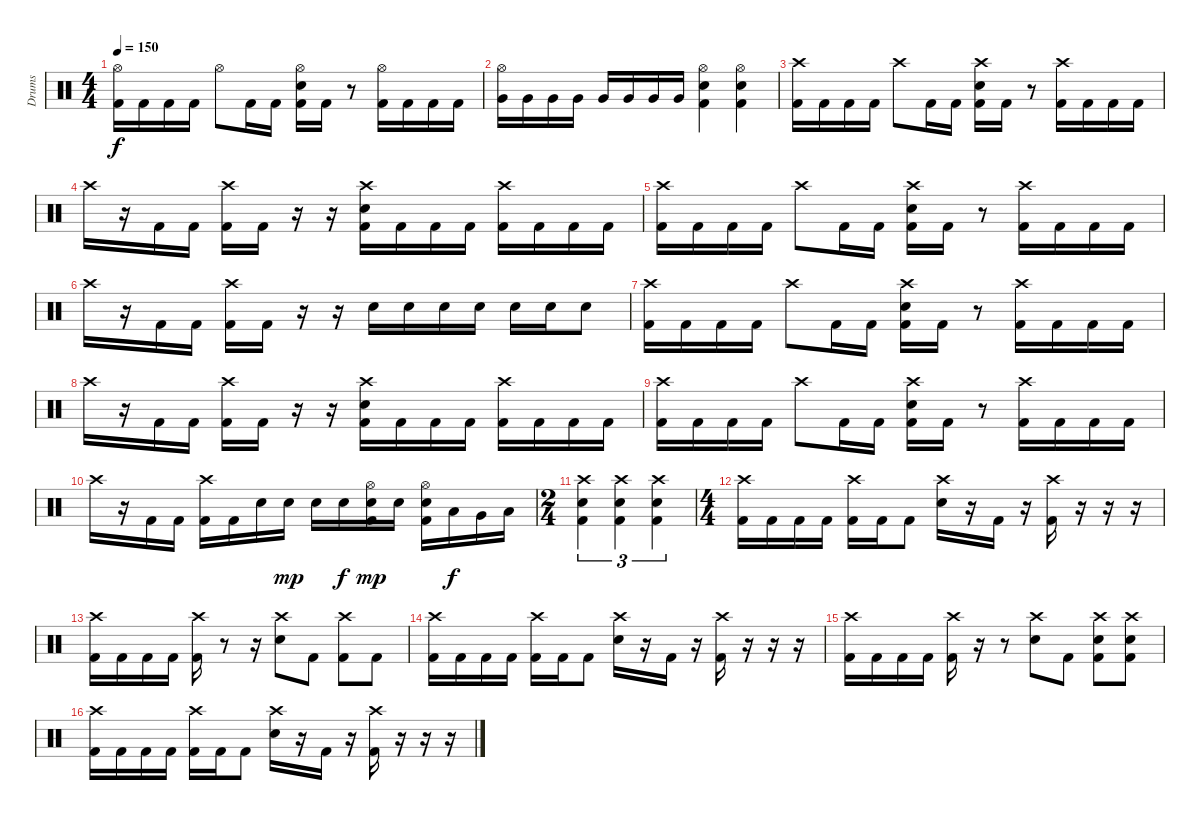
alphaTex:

\track ("Drums" "Drums") {instrument percussion}
\staff {score}
\articulation defaults
\ts (4 4)
\tempo 150
\clef neutral
\ks c
("Hi-Hat (open)" "Kick (hit) 2").16{dy f} "Kick (hit) 2".16 "Kick (hit) 2".16 "Kick (hit) 2".16 "Hi-Hat (open)".8 "Kick (hit) 2".16 "Kick (hit) 2".16 ("Hi-Hat (open)" "Electric Snare (hit)" "Kick (hit) 2").16 "Kick (hit) 2".16 r.8 ("Hi-Hat (open)" "Kick (hit) 2").16 "Kick (hit) 2".16 "Kick (hit) 2".16 "Kick (hit) 2".16 |
("Hi-Hat (open)" "Very Low Tom (hit)").16 "Very Low Tom (hit)".16 "Very Low Tom (hit)".16 "Very Low Tom (hit)".16 "Very Low Tom (hit)".16 "Very Low Tom (hit)".16 "Very Low Tom (hit)".16 "Very Low Tom (hit)".16 ("Hi-Hat (open)" "Electric Snare (hit)" "Kick (hit) 2").4 ("Hi-Hat (open)" "Electric Snare (hit)" "Kick (hit) 2").4 |
("Crash high (hit)" "Kick (hit) 2").16 "Kick (hit) 2".16 "Kick (hit) 2".16 "Kick (hit) 2".16 "Crash high (hit)".8 "Kick (hit) 2".16 "Kick (hit) 2".16 ("Crash high (hit)" "Electric Snare (hit)" "Kick (hit) 2").16 "Kick (hit) 2".16 r.8 ("Crash high (hit)" "Kick (hit) 2").16 "Kick (hit) 2".16 "Kick (hit) 2".16 "Kick (hit) 2".16 |
"Crash high (hit)".16 r.16 "Kick (hit) 2".16 "Kick (hit) 2".16 ("Crash high (hit)" "Kick (hit) 2").16 "Kick (hit) 2".16 r.16 r.16 ("Crash high (hit)" "Electric Snare (hit)" "Kick (hit) 2").16 "Kick (hit) 2".16 "Kick (hit) 2".16 "Kick (hit) 2".16 ("Crash high (hit)" "Kick (hit) 2").16 "Kick (hit) 2".16 "Kick (hit) 2".16 "Kick (hit) 2".16 |
("Crash high (hit)" "Kick (hit) 2").16 "Kick (hit) 2".16 "Kick (hit) 2".16 "Kick (hit) 2".16 "Crash high (hit)".8 "Kick (hit) 2".16 "Kick (hit) 2".16 ("Crash high (hit)" "Electric Snare (hit)" "Kick (hit) 2").16 "Kick (hit) 2".16 r.8 ("Crash high (hit)" "Kick (hit) 2").16 "Kick (hit) 2".16 "Kick (hit) 2".16 "Kick (hit) 2".16 |
"Crash high (hit)".16 r.16 "Kick (hit) 2".16 "Kick (hit) 2".16 ("Crash high (hit)" "Kick (hit) 2").16 "Kick (hit) 2".16 r.16 r.16 "Electric Snare (hit)".16 "Electric Snare (hit)".16 "Electric Snare (hit)".16 "Electric Snare (hit)".16 "Electric Snare (hit)".16 "Electric Snare (hit)".16 "Electric Snare (hit)".8 |
("Crash high (hit)" "Kick (hit) 2").16 "Kick (hit) 2".16 "Kick (hit) 2".16 "Kick (hit) 2".16 "Crash high (hit)".8 "Kick (hit) 2".16 "Kick (hit) 2".16 ("Crash high (hit)" "Electric Snare (hit)" "Kick (hit) 2").16 "Kick (hit) 2".16 r.8 ("Crash high (hit)" "Kick (hit) 2").16 "Kick (hit) 2".16 "Kick (hit) 2".16 "Kick (hit) 2".16 |
"Crash high (hit)".16 r.16 "Kick (hit) 2".16 "Kick (hit) 2".16 ("Crash high (hit)" "Kick (hit) 2").16 "Kick (hit) 2".16 r.16 r.16 ("Crash high (hit)" "Electric Snare (hit)" "Kick (hit) 2").16 "Kick (hit) 2".16 "Kick (hit) 2".16 "Kick (hit) 2".16 ("Crash high (hit)" "Kick (hit) 2").16 "Kick (hit) 2".16 "Kick (hit) 2".16 "Kick (hit) 2".16 |
("Crash high (hit)" "Kick (hit) 2").16 "Kick (hit) 2".16 "Kick (hit) 2".16 "Kick (hit) 2".16 "Crash high (hit)".8 "Kick (hit) 2".16 "Kick (hit) 2".16 ("Crash high (hit)" "Electric Snare (hit)" "Kick (hit) 2").16 "Kick (hit) 2".16 r.8 ("Crash high (hit)" "Kick (hit) 2").16 "Kick (hit) 2".16 "Kick (hit) 2".16 "Kick (hit) 2".16 |
"Crash high (hit)".16 r.16 "Kick (hit) 2".16 "Kick (hit) 2".16 ("Crash high (hit)" "Kick (hit) 2").16 "Kick (hit) 2".16 "Electric Snare (hit)".16 "Electric Snare (hit)".16{dy mp} "Electric Snare (hit)".16 "Electric Snare (hit)".16{dy f} ("Hi-Hat (open)" "Electric Snare (hit)" "Kick (hit) 2").16{dy mp} "Electric Snare (hit)".16 ("Hi-Hat (open)" "Electric Snare (hit)" "Kick (hit) 2").16 "Low Tom (hit)".16{dy f} "Very Low Tom (hit)".16 "Low Floor Tom (hit)".16 |
\ts (2 4)
("Crash high (hit)" "Electric Snare (hit)" "Kick (hit) 2").4{tu (3 2)} ("Crash high (hit)" "Electric Snare (hit)" "Kick (hit) 2").4{tu (3 2)} ("Crash high (hit)" "Electric Snare (hit)" "Kick (hit) 2").4{tu (3 2)} |
\ts (4 4)
("Crash high (hit)" "Kick (hit) 2").16 "Kick (hit) 2".16 "Kick (hit) 2".16 "Kick (hit) 2".16 ("Crash high (hit)" "Kick (hit) 2").16 "Kick (hit) 2".16 "Kick (hit) 2".8 ("Crash high (hit)" "Electric Snare (hit)").16 r.16 "Kick (hit) 2".16 r.16 ("Crash high (hit)" "Kick (hit) 2").16 r.16 r.16 r.16 |
("Crash high (hit)" "Kick (hit) 2").16 "Kick (hit) 2".16 "Kick (hit) 2".16 "Kick (hit) 2".16 ("Crash high (hit)" "Kick (hit) 2").16 r.8 r.16 ("Crash high (hit)" "Electric Snare (hit)").8 "Kick (hit) 2".8 ("Crash high (hit)" "Kick (hit) 2").8 "Kick (hit) 2".8 |
("Crash high (hit)" "Kick (hit) 2").16 "Kick (hit) 2".16 "Kick (hit) 2".16 "Kick (hit) 2".16 ("Crash high (hit)" "Kick (hit) 2").16 "Kick (hit) 2".16 "Kick (hit) 2".8 ("Crash high (hit)" "Electric Snare (hit)").16 r.16 "Kick (hit) 2".16 r.16 ("Crash high (hit)" "Kick (hit) 2").16 r.16 r.16 r.16 |
("Crash high (hit)" "Kick (hit) 2").16 "Kick (hit) 2".16 "Kick (hit) 2".16 "Kick (hit) 2".16 ("Crash high (hit)" "Kick (hit) 2").16 r.16 r.8 ("Crash high (hit)" "Electric Snare (hit)").8 "Kick (hit) 2".8 ("Crash high (hit)" "Electric Snare (hit)" "Kick (hit) 2").8 ("Crash high (hit)" "Electric Snare (hit)" "Kick (hit) 2").8 |
("Crash high (hit)" "Kick (hit) 2").16 "Kick (hit) 2".16 "Kick (hit) 2".16 "Kick (hit) 2".16 ("Crash high (hit)" "Kick (hit) 2").16 "Kick (hit) 2".16 "Kick (hit) 2".8 ("Crash high (hit)" "Electric Snare (hit)").16 r.16 "Kick (hit) 2".16 r.16 ("Crash high (hit)" "Kick (hit) 2").16 r.16 r.16 r.16
